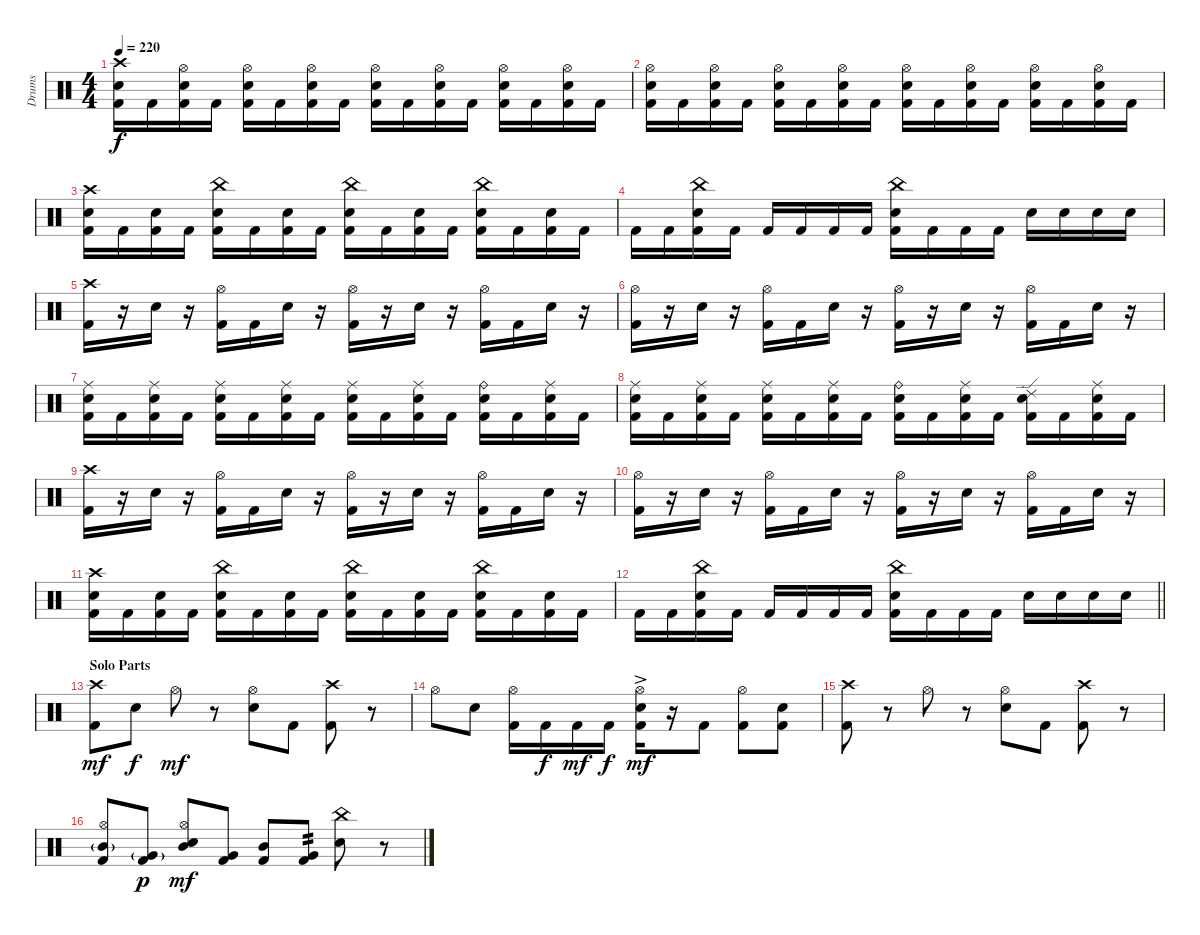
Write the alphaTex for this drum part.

\track ("Drums" "Drums") {instrument percussion}
\staff {score}
\articulation defaults
\ts (4 4)
\tempo 220
\clef neutral
\ks c
("Electric Snare (hit)" "Kick (hit) 2" "Crash high (hit)").16{dy f} "Kick (hit) 2".16 ("Electric Snare (hit)" "Kick (hit) 2" "Hi-Hat (open)").16 "Kick (hit) 2".16 ("Electric Snare (hit)" "Kick (hit) 2" "Hi-Hat (open)").16 "Kick (hit) 2".16 ("Electric Snare (hit)" "Kick (hit) 2" "Hi-Hat (open)").16 "Kick (hit) 2".16 ("Electric Snare (hit)" "Kick (hit) 2" "Hi-Hat (open)").16 "Kick (hit) 2".16 ("Electric Snare (hit)" "Kick (hit) 2" "Hi-Hat (open)").16 "Kick (hit) 2".16 ("Electric Snare (hit)" "Kick (hit) 2" "Hi-Hat (open)").16 "Kick (hit) 2".16 ("Electric Snare (hit)" "Kick (hit) 2" "Hi-Hat (open)").16 "Kick (hit) 2".16 |
("Electric Snare (hit)" "Kick (hit) 2" "Hi-Hat (open)").16 "Kick (hit) 2".16 ("Electric Snare (hit)" "Kick (hit) 2" "Hi-Hat (open)").16 "Kick (hit) 2".16 ("Electric Snare (hit)" "Kick (hit) 2" "Hi-Hat (open)").16 "Kick (hit) 2".16 ("Electric Snare (hit)" "Kick (hit) 2" "Hi-Hat (open)").16 "Kick (hit) 2".16 ("Electric Snare (hit)" "Kick (hit) 2" "Hi-Hat (open)").16 "Kick (hit) 2".16 ("Electric Snare (hit)" "Kick (hit) 2" "Hi-Hat (open)").16 "Kick (hit) 2".16 ("Electric Snare (hit)" "Kick (hit) 2" "Hi-Hat (open)").16 "Kick (hit) 2".16 ("Electric Snare (hit)" "Kick (hit) 2" "Hi-Hat (open)").16 "Kick (hit) 2".16 |
("Kick (hit) 2" "Electric Snare (hit)" "Crash high (hit)").16 "Kick (hit) 2".16 ("Kick (hit) 2" "Electric Snare (hit)").16 "Kick (hit) 2".16 ("Kick (hit) 2" "Electric Snare (hit)" "China (hit)").16 "Kick (hit) 2".16 ("Kick (hit) 2" "Electric Snare (hit)").16 "Kick (hit) 2".16 ("Kick (hit) 2" "Electric Snare (hit)" "China (hit)").16 "Kick (hit) 2".16 ("Kick (hit) 2" "Electric Snare (hit)").16 "Kick (hit) 2".16 ("Kick (hit) 2" "Electric Snare (hit)" "China (hit)").16 "Kick (hit) 2".16 ("Kick (hit) 2" "Electric Snare (hit)").16 "Kick (hit) 2".16 |
"Kick (hit) 2".16 "Kick (hit) 2".16 ("Kick (hit) 2" "Electric Snare (hit)" "China (hit)").16 "Kick (hit) 2".16 "Kick (hit) 2".16 "Kick (hit) 2".16 "Kick (hit) 2".16 "Kick (hit) 2".16 ("Kick (hit) 2" "Electric Snare (hit)" "China (hit)").16 "Kick (hit) 2".16 "Kick (hit) 2".16 "Kick (hit) 2".16 "Electric Snare (hit)".16 "Electric Snare (hit)".16 "Electric Snare (hit)".16 "Electric Snare (hit)".16 |
("Kick (hit) 2" "Crash high (hit)").16 r.16 "Electric Snare (hit)".16 r.16 ("Kick (hit) 2" "Hi-Hat (open)").16 "Kick (hit) 2".16 "Electric Snare (hit)".16 r.16 ("Kick (hit) 2" "Hi-Hat (open)").16 r.16 "Electric Snare (hit)".16 r.16 ("Kick (hit) 2" "Hi-Hat (open)").16 "Kick (hit) 2".16 "Electric Snare (hit)".16 r.16 |
("Kick (hit) 2" "Hi-Hat (open)").16 r.16 "Electric Snare (hit)".16 r.16 ("Kick (hit) 2" "Hi-Hat (open)").16 "Kick (hit) 2".16 "Electric Snare (hit)".16 r.16 ("Kick (hit) 2" "Hi-Hat (open)").16 r.16 "Electric Snare (hit)".16 r.16 ("Kick (hit) 2" "Hi-Hat (open)").16 "Kick (hit) 2".16 "Electric Snare (hit)".16 r.16 |
("Electric Snare (hit)" "Kick (hit) 2" "Ride (middle)").16 "Kick (hit) 2".16 ("Electric Snare (hit)" "Kick (hit) 2" "Ride (middle)").16 "Kick (hit) 2".16 ("Electric Snare (hit)" "Kick (hit) 2" "Ride (middle)").16 "Kick (hit) 2".16 ("Electric Snare (hit)" "Kick (hit) 2" "Ride (middle)").16 "Kick (hit) 2".16 ("Electric Snare (hit)" "Kick (hit) 2" "Ride (middle)").16 "Kick (hit) 2".16 ("Electric Snare (hit)" "Kick (hit) 2" "Ride (middle)").16 "Kick (hit) 2".16 ("Electric Snare (hit)" "Kick (hit) 2" "Ride (bell)").16 "Kick (hit) 2".16 ("Electric Snare (hit)" "Kick (hit) 2" "Ride (middle)").16 "Kick (hit) 2".16 |
("Electric Snare (hit)" "Kick (hit) 2" "Ride (middle)").16 "Kick (hit) 2".16 ("Electric Snare (hit)" "Kick (hit) 2" "Ride (middle)").16 "Kick (hit) 2".16 ("Electric Snare (hit)" "Kick (hit) 2" "Ride (middle)").16 "Kick (hit) 2".16 ("Electric Snare (hit)" "Kick (hit) 2" "Ride (middle)").16 "Kick (hit) 2".16 ("Electric Snare (hit)" "Kick (hit) 2" "Ride (bell)").16 "Kick (hit) 2".16 ("Electric Snare (hit)" "Kick (hit) 2" "Ride (middle)").16 "Kick (hit) 2".16 ("Electric Snare (hit)" "Kick (hit) 2" "Ride (edge) 2").16 "Kick (hit) 2".16 ("Electric Snare (hit)" "Kick (hit) 2" "Ride (middle)").16 "Kick (hit) 2".16 |
("Kick (hit) 2" "Crash high (hit)").16 r.16 "Electric Snare (hit)".16 r.16 ("Kick (hit) 2" "Hi-Hat (open)").16 "Kick (hit) 2".16 "Electric Snare (hit)".16 r.16 ("Kick (hit) 2" "Hi-Hat (open)").16 r.16 "Electric Snare (hit)".16 r.16 ("Kick (hit) 2" "Hi-Hat (open)").16 "Kick (hit) 2".16 "Electric Snare (hit)".16 r.16 |
("Kick (hit) 2" "Hi-Hat (open)").16 r.16 "Electric Snare (hit)".16 r.16 ("Kick (hit) 2" "Hi-Hat (open)").16 "Kick (hit) 2".16 "Electric Snare (hit)".16 r.16 ("Kick (hit) 2" "Hi-Hat (open)").16 r.16 "Electric Snare (hit)".16 r.16 ("Kick (hit) 2" "Hi-Hat (open)").16 "Kick (hit) 2".16 "Electric Snare (hit)".16 r.16 |
("Kick (hit) 2" "Electric Snare (hit)" "Crash high (hit)").16 "Kick (hit) 2".16 ("Kick (hit) 2" "Electric Snare (hit)").16 "Kick (hit) 2".16 ("Kick (hit) 2" "Electric Snare (hit)" "China (hit)").16 "Kick (hit) 2".16 ("Kick (hit) 2" "Electric Snare (hit)").16 "Kick (hit) 2".16 ("Kick (hit) 2" "Electric Snare (hit)" "China (hit)").16 "Kick (hit) 2".16 ("Kick (hit) 2" "Electric Snare (hit)").16 "Kick (hit) 2".16 ("Kick (hit) 2" "Electric Snare (hit)" "China (hit)").16 "Kick (hit) 2".16 ("Kick (hit) 2" "Electric Snare (hit)").16 "Kick (hit) 2".16 |
\barLineRight lightlight "Kick (hit) 2".16 "Kick (hit) 2".16
("Kick (hit) 2" "Electric Snare (hit)" "China (hit)").16 "Kick (hit) 2".16 "Kick (hit) 2".16 "Kick (hit) 2".16 "Kick (hit) 2".16 "Kick (hit) 2".16 ("Kick (hit) 2" "Electric Snare (hit)" "China (hit)").16 "Kick (hit) 2".16 "Kick (hit) 2".16 "Kick (hit) 2".16 "Electric Snare (hit)".16 "Electric Snare (hit)".16 "Electric Snare (hit)".16 "Electric Snare (hit)".16 |
\section ("" "Solo Parts ")
("Kick (hit) 2" "Crash high (hit)").8{dy mf} "Electric Snare (hit)".8{dy f} "Hi-Hat (open)".8{dy mf} r.8 ("Electric Snare (hit)" "Hi-Hat (open)").8 "Kick (hit) 2".8 ("Kick (hit) 2" "Crash high (hit)").8 r.8 |
"Hi-Hat (open)".8 "Electric Snare (hit)".8 ("Kick (hit) 2" "Hi-Hat (open)").16 "Kick (hit) 2".16{dy f} "Kick (hit) 2".16{dy mf} "Kick (hit) 2".16{dy f} ("Kick (hit) 2" "Electric Snare (hit)"{ac} "Hi-Hat (open)").16{dy mf} r.16 "Kick (hit) 2".8 ("Kick (hit) 2" "Hi-Hat (open)").8 ("Kick (hit) 2" "Electric Snare (hit)").8 |
("Kick (hit) 2" "Crash high (hit)").8 r.8 "Hi-Hat (open)".8 r.8 ("Electric Snare (hit)" "Hi-Hat (open)").8 "Kick (hit) 2".8 ("Kick (hit) 2" "Crash high (hit)").8 r.8 |
("Kick (hit) 2" "Mid Tom (hit)"{g} "Hi-Hat (open)").8 ("Kick (hit) 2" "Very Low Tom (hit)"{g}).8{dy p} ("Electric Snare (hit)" "Mid Tom (hit)" "Hi-Hat (open)").8{dy mf} ("Kick (hit) 2" "Very Low Tom (hit)").8 ("Kick (hit) 2" "Mid Tom (hit)").8 ("Kick (hit) 2" "Very Low Tom (hit)").8{tp 2} ("Electric Snare (hit)" "China (hit)").8 r.8
